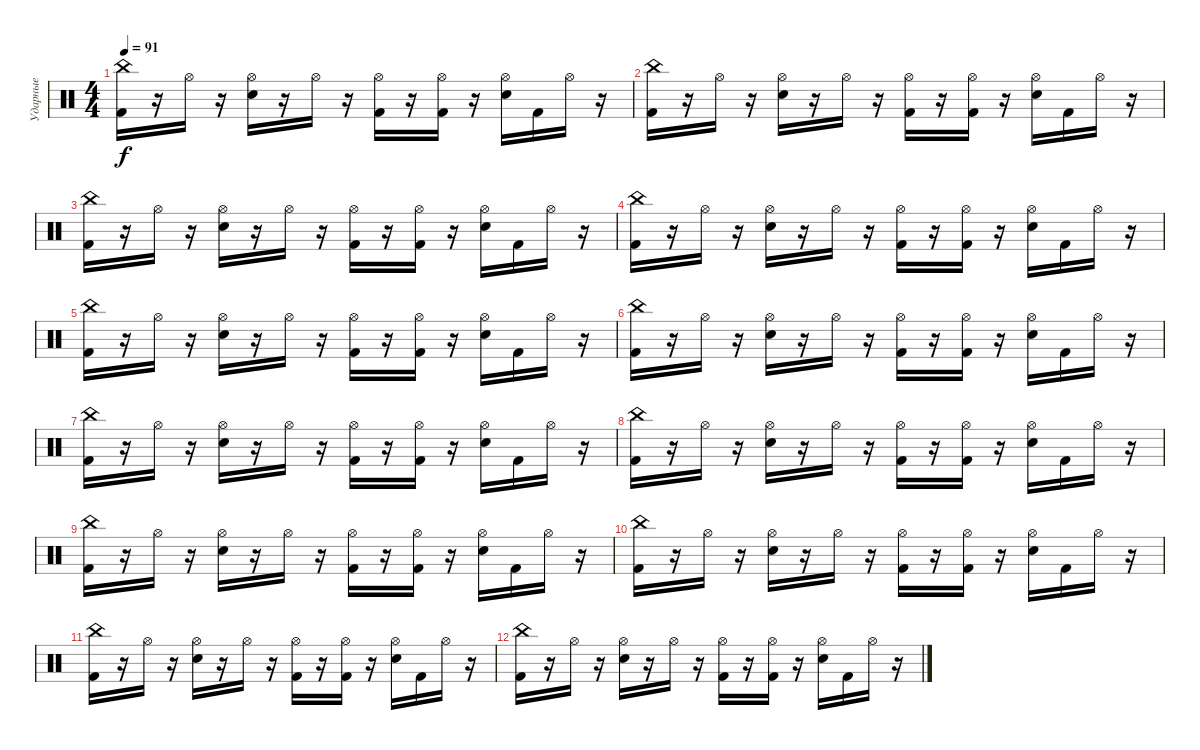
\track ("Ударные" "Ударные") {instrument percussion}
\staff {score}
\articulation defaults
\ts (4 4)
\tempo 91
\clef neutral
\ks c
("China (hit)" "Kick (hit) 2").16{dy f} r.16 "Hi-Hat (open)".16 r.16 ("Hi-Hat (open)" "Snare (hit) 2").16 r.16 "Hi-Hat (open)".16 r.16 ("Hi-Hat (open)" "Kick (hit) 2").16 r.16 ("Hi-Hat (open)" "Kick (hit) 2").16 r.16 ("Hi-Hat (open)" "Snare (hit) 2").16 "Kick (hit) 2".16 "Hi-Hat (open)".16 r.16 |
("China (hit)" "Kick (hit) 2").16 r.16 "Hi-Hat (open)".16 r.16 ("Hi-Hat (open)" "Snare (hit) 2").16 r.16 "Hi-Hat (open)".16 r.16 ("Hi-Hat (open)" "Kick (hit) 2").16 r.16 ("Hi-Hat (open)" "Kick (hit) 2").16 r.16 ("Hi-Hat (open)" "Snare (hit) 2").16 "Kick (hit) 2".16 "Hi-Hat (open)".16 r.16 |
("China (hit)" "Kick (hit) 2").16 r.16 "Hi-Hat (open)".16 r.16 ("Hi-Hat (open)" "Snare (hit) 2").16 r.16 "Hi-Hat (open)".16 r.16 ("Hi-Hat (open)" "Kick (hit) 2").16 r.16 ("Hi-Hat (open)" "Kick (hit) 2").16 r.16 ("Hi-Hat (open)" "Snare (hit) 2").16 "Kick (hit) 2".16 "Hi-Hat (open)".16 r.16 |
("China (hit)" "Kick (hit) 2").16 r.16 "Hi-Hat (open)".16 r.16 ("Hi-Hat (open)" "Snare (hit) 2").16 r.16 "Hi-Hat (open)".16 r.16 ("Hi-Hat (open)" "Kick (hit) 2").16 r.16 ("Hi-Hat (open)" "Kick (hit) 2").16 r.16 ("Hi-Hat (open)" "Snare (hit) 2").16 "Kick (hit) 2".16 "Hi-Hat (open)".16 r.16 |
("China (hit)" "Kick (hit) 2").16 r.16 "Hi-Hat (open)".16 r.16 ("Hi-Hat (open)" "Snare (hit) 2").16 r.16 "Hi-Hat (open)".16 r.16 ("Hi-Hat (open)" "Kick (hit) 2").16 r.16 ("Hi-Hat (open)" "Kick (hit) 2").16 r.16 ("Hi-Hat (open)" "Snare (hit) 2").16 "Kick (hit) 2".16 "Hi-Hat (open)".16 r.16 |
("China (hit)" "Kick (hit) 2").16 r.16 "Hi-Hat (open)".16 r.16 ("Hi-Hat (open)" "Snare (hit) 2").16 r.16 "Hi-Hat (open)".16 r.16 ("Hi-Hat (open)" "Kick (hit) 2").16 r.16 ("Hi-Hat (open)" "Kick (hit) 2").16 r.16 ("Hi-Hat (open)" "Snare (hit) 2").16 "Kick (hit) 2".16 "Hi-Hat (open)".16 r.16 |
("China (hit)" "Kick (hit) 2").16 r.16 "Hi-Hat (open)".16 r.16 ("Hi-Hat (open)" "Snare (hit) 2").16 r.16 "Hi-Hat (open)".16 r.16 ("Hi-Hat (open)" "Kick (hit) 2").16 r.16 ("Hi-Hat (open)" "Kick (hit) 2").16 r.16 ("Hi-Hat (open)" "Snare (hit) 2").16 "Kick (hit) 2".16 "Hi-Hat (open)".16 r.16 |
("China (hit)" "Kick (hit) 2").16 r.16 "Hi-Hat (open)".16 r.16 ("Hi-Hat (open)" "Snare (hit) 2").16 r.16 "Hi-Hat (open)".16 r.16 ("Hi-Hat (open)" "Kick (hit) 2").16 r.16 ("Hi-Hat (open)" "Kick (hit) 2").16 r.16 ("Hi-Hat (open)" "Snare (hit) 2").16 "Kick (hit) 2".16 "Hi-Hat (open)".16 r.16 |
("China (hit)" "Kick (hit) 2").16 r.16 "Hi-Hat (open)".16 r.16 ("Hi-Hat (open)" "Snare (hit) 2").16 r.16 "Hi-Hat (open)".16 r.16 ("Hi-Hat (open)" "Kick (hit) 2").16 r.16 ("Hi-Hat (open)" "Kick (hit) 2").16 r.16 ("Hi-Hat (open)" "Snare (hit) 2").16 "Kick (hit) 2".16 "Hi-Hat (open)".16 r.16 |
("China (hit)" "Kick (hit) 2").16 r.16 "Hi-Hat (open)".16 r.16 ("Hi-Hat (open)" "Snare (hit) 2").16 r.16 "Hi-Hat (open)".16 r.16 ("Hi-Hat (open)" "Kick (hit) 2").16 r.16 ("Hi-Hat (open)" "Kick (hit) 2").16 r.16 ("Hi-Hat (open)" "Snare (hit) 2").16 "Kick (hit) 2".16 "Hi-Hat (open)".16 r.16 |
("China (hit)" "Kick (hit) 2").16 r.16 "Hi-Hat (open)".16 r.16 ("Hi-Hat (open)" "Snare (hit) 2").16 r.16 "Hi-Hat (open)".16 r.16 ("Hi-Hat (open)" "Kick (hit) 2").16 r.16 ("Hi-Hat (open)" "Kick (hit) 2").16 r.16 ("Hi-Hat (open)" "Snare (hit) 2").16 "Kick (hit) 2".16 "Hi-Hat (open)".16 r.16 |
("China (hit)" "Kick (hit) 2").16 r.16 "Hi-Hat (open)".16 r.16 ("Hi-Hat (open)" "Snare (hit) 2").16 r.16 "Hi-Hat (open)".16 r.16 ("Hi-Hat (open)" "Kick (hit) 2").16 r.16 ("Hi-Hat (open)" "Kick (hit) 2").16 r.16 ("Hi-Hat (open)" "Snare (hit) 2").16 "Kick (hit) 2".16 "Hi-Hat (open)".16 r.16
